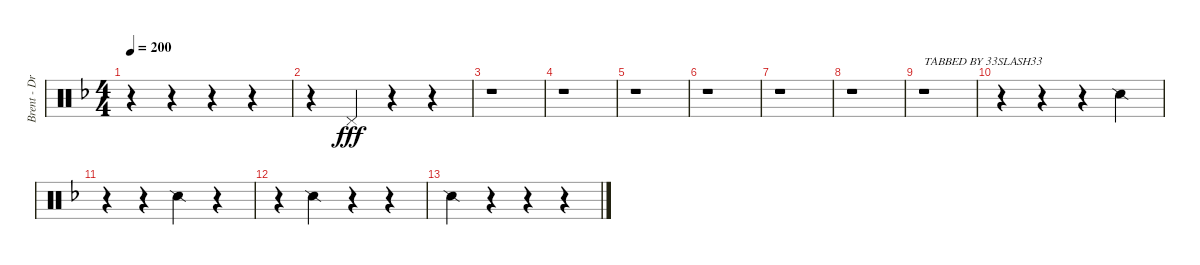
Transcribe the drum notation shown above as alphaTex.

\track ("Brent - Drums" "Brent - Dr") {instrument percussion}
\staff {score}
\articulation defaults
\ts (4 4)
\tempo 200
\clef neutral
\ks dminor
r.4{dy fff} r.4 r.4 r.4 |
r.4 "Pedal Hi-Hat (hit)".4 r.4 r.4 |
r.1 |
r.1 |
r.1 |
r.1 |
r.1 |
r.1 |
r.1{txt "TABBED BY 33SLASH33"} |
r.4 r.4 r.4 "Snare (side stick) 2".4 |
r.4 r.4 "Snare (side stick) 2".4 r.4 |
r.4 "Snare (side stick) 2".4 r.4 r.4 |
"Snare (side stick) 2".4 r.4 r.4 r.4
